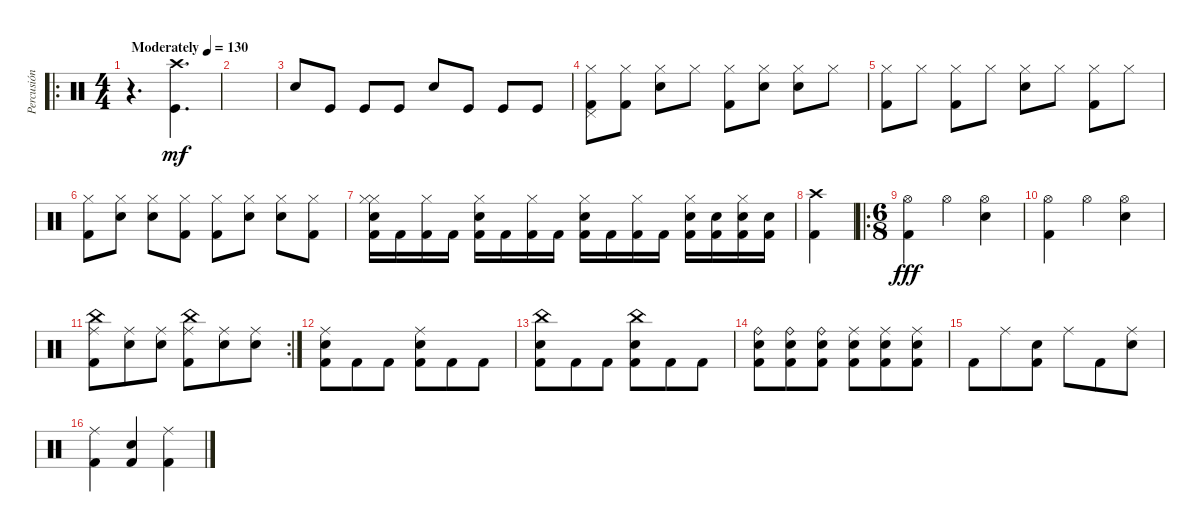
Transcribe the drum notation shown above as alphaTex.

\track ("Percusión" "Percusión") {instrument percussion}
\staff {score}
\articulation defaults
\ro
\ts (4 4)
\tempo (130 "Moderately")
\clef neutral
\ks c
r.4{d dy mf} ("Crash high (hit)" "Kick (hit)").4{d} |
|
"Snare (hit) 2".8 "Kick (hit)".8 "Kick (hit)".8 "Kick (hit)".8 "Snare (hit) 2".8 "Kick (hit)".8 "Kick (hit)".8 "Kick (hit)".8 |
("Kick (hit) 2" "Hi-Hat (closed)" "Pedal Hi-Hat (hit)").8 ("Kick (hit) 2" "Hi-Hat (closed)").8 ("Snare (hit) 2" "Hi-Hat (closed)").8 "Hi-Hat (closed)".8 ("Kick (hit) 2" "Hi-Hat (closed)").8 ("Snare (hit) 2" "Hi-Hat (closed)").8 ("Snare (hit) 2" "Hi-Hat (closed)").8 "Hi-Hat (closed)".8 |
("Kick (hit) 2" "Hi-Hat (closed)").8 "Hi-Hat (closed)".8 ("Kick (hit) 2" "Hi-Hat (closed)").8 "Hi-Hat (closed)".8 ("Snare (hit) 2" "Hi-Hat (closed)").8 "Hi-Hat (closed)".8 ("Kick (hit) 2" "Hi-Hat (closed)").8 "Hi-Hat (closed)".8 |
("Kick (hit) 2" "Hi-Hat (closed)").8 ("Snare (hit) 2" "Hi-Hat (closed)").8 ("Snare (hit) 2" "Hi-Hat (closed)").8 ("Kick (hit) 2" "Hi-Hat (closed)").8 ("Kick (hit) 2" "Hi-Hat (closed)").8 ("Snare (hit) 2" "Hi-Hat (closed)").8 ("Snare (hit) 2" "Hi-Hat (closed)").8 ("Kick (hit) 2" "Hi-Hat (closed)").8 |
("Kick (hit) 2" "Hi-Hat (closed)" "Snare (hit) 2" "Hi-Hat (closed)").16 "Kick (hit) 2".16 ("Kick (hit) 2" "Hi-Hat (closed)").16 "Kick (hit) 2".16 ("Kick (hit) 2" "Snare (hit) 2" "Hi-Hat (closed)").16 "Kick (hit) 2".16 ("Kick (hit) 2" "Hi-Hat (closed)").16 "Kick (hit) 2".16 ("Kick (hit) 2" "Hi-Hat (closed)" "Snare (hit) 2").16 "Kick (hit) 2".16 ("Kick (hit) 2" "Hi-Hat (closed)").16 "Kick (hit) 2".16 ("Kick (hit) 2" "Hi-Hat (closed)" "Snare (hit) 2").16 ("Kick (hit) 2" "Snare (hit) 2").16 ("Kick (hit) 2" "Hi-Hat (closed)" "Snare (hit) 2").16 ("Kick (hit) 2" "Snare (hit) 2").16 |
("Crash high (hit)" "Kick (hit) 2").4 |
\ro
\ts (6 8)
("Kick (hit) 2" "Hi-Hat (open)").4{dy fff} "Hi-Hat (open)".4 ("Snare (hit) 2" "Hi-Hat (open)").4 |
("Kick (hit) 2" "Hi-Hat (open)").4 "Hi-Hat (open)".4 ("Snare (hit) 2" "Hi-Hat (open)").4 |
\rc 2
("Kick (hit) 2" "China (hit)" "Ride (middle)").8 ("Snare (hit) 2" "Ride (middle)").8 ("Snare (hit) 2" "Ride (middle)").8 ("Kick (hit) 2" "China (hit)" "Ride (middle)").8 ("Snare (hit) 2" "Ride (middle)").8 ("Snare (hit) 2" "Ride (middle)").8 |
("Kick (hit) 2" "Snare (hit) 2" "Ride (middle)").8 "Kick (hit) 2".8 "Kick (hit) 2".8 ("Kick (hit) 2" "Snare (hit) 2" "Ride (middle)").8 "Kick (hit) 2".8 "Kick (hit) 2".8 |
("Kick (hit) 2" "Snare (hit) 2" "China (hit)").8 "Kick (hit) 2".8 "Kick (hit) 2".8 ("Kick (hit) 2" "Snare (hit) 2" "China (hit)").8 "Kick (hit) 2".8 "Kick (hit) 2".8 |
("Kick (hit) 2" "Ride (bell)" "Snare (hit) 2").8 ("Kick (hit) 2" "Ride (bell)" "Snare (hit) 2").8 ("Kick (hit) 2" "Ride (bell)" "Snare (hit) 2").8 ("Kick (hit) 2" "Ride (middle)" "Snare (hit) 2").8 ("Kick (hit) 2" "Ride (middle)" "Snare (hit) 2").8 ("Kick (hit) 2" "Ride (middle)" "Snare (hit) 2").8 |
"Kick (hit) 2".8 "Ride (middle)".8 ("Kick (hit) 2" "Snare (hit) 2").8 "Ride (middle)".8 "Kick (hit) 2".8 ("Snare (hit) 2" "Ride (middle)").8 |
("Kick (hit) 2" "Ride (middle)").4 ("Kick (hit) 2" "Snare (hit) 2").4 ("Kick (hit) 2" "Ride (middle)").4
